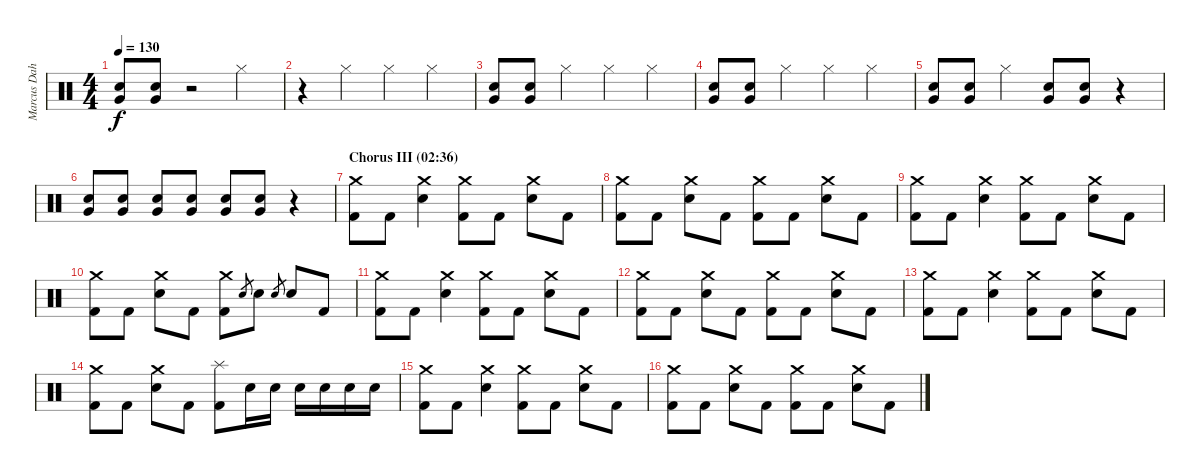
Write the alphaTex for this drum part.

\track ("Marcus Dahlström" "Marcus Dah") {instrument percussion}
\staff {score}
\articulation defaults
\ts (4 4)
\tempo 130
\clef neutral
\ks c
("Very Low Tom (hit)" "Electric Snare (hit)").8{dy f} ("Very Low Tom (hit)" "Electric Snare (hit)").8 r.2 "Hi-Hat (closed)".4 |
r.4 "Hi-Hat (closed)".4 "Hi-Hat (closed)".4 "Hi-Hat (closed)".4 |
("Very Low Tom (hit)" "Electric Snare (hit)").8 ("Very Low Tom (hit)" "Electric Snare (hit)").8 "Hi-Hat (closed)".4 "Hi-Hat (closed)".4 "Hi-Hat (closed)".4 |
("Very Low Tom (hit)" "Electric Snare (hit)").8 ("Very Low Tom (hit)" "Electric Snare (hit)").8 "Hi-Hat (closed)".4 "Hi-Hat (closed)".4 "Hi-Hat (closed)".4 |
("Very Low Tom (hit)" "Electric Snare (hit)").8 ("Very Low Tom (hit)" "Electric Snare (hit)").8 "Hi-Hat (closed)".4 ("Very Low Tom (hit)" "Electric Snare (hit)").8 ("Very Low Tom (hit)" "Electric Snare (hit)").8 r.4 |
("Very Low Tom (hit)" "Electric Snare (hit)").8 ("Very Low Tom (hit)" "Electric Snare (hit)").8 ("Very Low Tom (hit)" "Electric Snare (hit)").8 ("Very Low Tom (hit)" "Electric Snare (hit)").8 ("Very Low Tom (hit)" "Electric Snare (hit)").8 ("Very Low Tom (hit)" "Electric Snare (hit)").8 r.4 |
\section ("" "Chorus III (02:36)")
("Crash medium (hit)" "Kick (hit) 2").8 "Kick (hit) 2".8 ("Crash medium (hit)" "Electric Snare (hit)").4 ("Crash medium (hit)" "Kick (hit) 2").8 "Kick (hit) 2".8 ("Crash medium (hit)" "Electric Snare (hit)").8 "Kick (hit) 2".8 |
("Crash medium (hit)" "Kick (hit) 2").8 "Kick (hit) 2".8 ("Crash medium (hit)" "Electric Snare (hit)").8 "Kick (hit) 2".8 ("Crash medium (hit)" "Kick (hit) 2").8 "Kick (hit) 2".8 ("Crash medium (hit)" "Electric Snare (hit)").8 "Kick (hit) 2".8 |
("Crash medium (hit)" "Kick (hit) 2").8 "Kick (hit) 2".8 ("Crash medium (hit)" "Electric Snare (hit)").4 ("Crash medium (hit)" "Kick (hit) 2").8 "Kick (hit) 2".8 ("Crash medium (hit)" "Electric Snare (hit)").8 "Kick (hit) 2".8 |
("Crash medium (hit)" "Kick (hit) 2").8 "Kick (hit) 2".8 ("Crash medium (hit)" "Electric Snare (hit)").8 "Kick (hit) 2".8 ("Crash medium (hit)" "Kick (hit) 2").8 "Electric Snare (hit)".8{gr} "Electric Snare (hit)".8 "Electric Snare (hit)".8{gr} "Electric Snare (hit)".8 "Kick (hit) 2".8 |
("Crash medium (hit)" "Kick (hit) 2").8 "Kick (hit) 2".8 ("Crash medium (hit)" "Electric Snare (hit)").4 ("Crash medium (hit)" "Kick (hit) 2").8 "Kick (hit) 2".8 ("Crash medium (hit)" "Electric Snare (hit)").8 "Kick (hit) 2".8 |
("Crash medium (hit)" "Kick (hit) 2").8 "Kick (hit) 2".8 ("Crash medium (hit)" "Electric Snare (hit)").8 "Kick (hit) 2".8 ("Crash medium (hit)" "Kick (hit) 2").8 "Kick (hit) 2".8 ("Crash medium (hit)" "Electric Snare (hit)").8 "Kick (hit) 2".8 |
("Crash medium (hit)" "Kick (hit) 2").8 "Kick (hit) 2".8 ("Crash medium (hit)" "Electric Snare (hit)").4 ("Crash medium (hit)" "Kick (hit) 2").8 "Kick (hit) 2".8 ("Crash medium (hit)" "Electric Snare (hit)").8 "Kick (hit) 2".8 |
("Crash medium (hit)" "Kick (hit) 2").8 "Kick (hit) 2".8 ("Crash medium (hit)" "Electric Snare (hit)").8 "Kick (hit) 2".8 ("Splash (hit)" "Kick (hit) 2").8 "Electric Snare (hit)".16 "Electric Snare (hit)".16 "Electric Snare (hit)".16 "Electric Snare (hit)".16 "Electric Snare (hit)".16 "Electric Snare (hit)".16 |
("Crash medium (hit)" "Kick (hit) 2").8 "Kick (hit) 2".8 ("Crash medium (hit)" "Electric Snare (hit)").4 ("Crash medium (hit)" "Kick (hit) 2").8 "Kick (hit) 2".8 ("Crash medium (hit)" "Electric Snare (hit)").8 "Kick (hit) 2".8 |
("Crash medium (hit)" "Kick (hit) 2").8 "Kick (hit) 2".8 ("Crash medium (hit)" "Electric Snare (hit)").8 "Kick (hit) 2".8 ("Crash medium (hit)" "Kick (hit) 2").8 "Kick (hit) 2".8 ("Crash medium (hit)" "Electric Snare (hit)").8 "Kick (hit) 2".8
